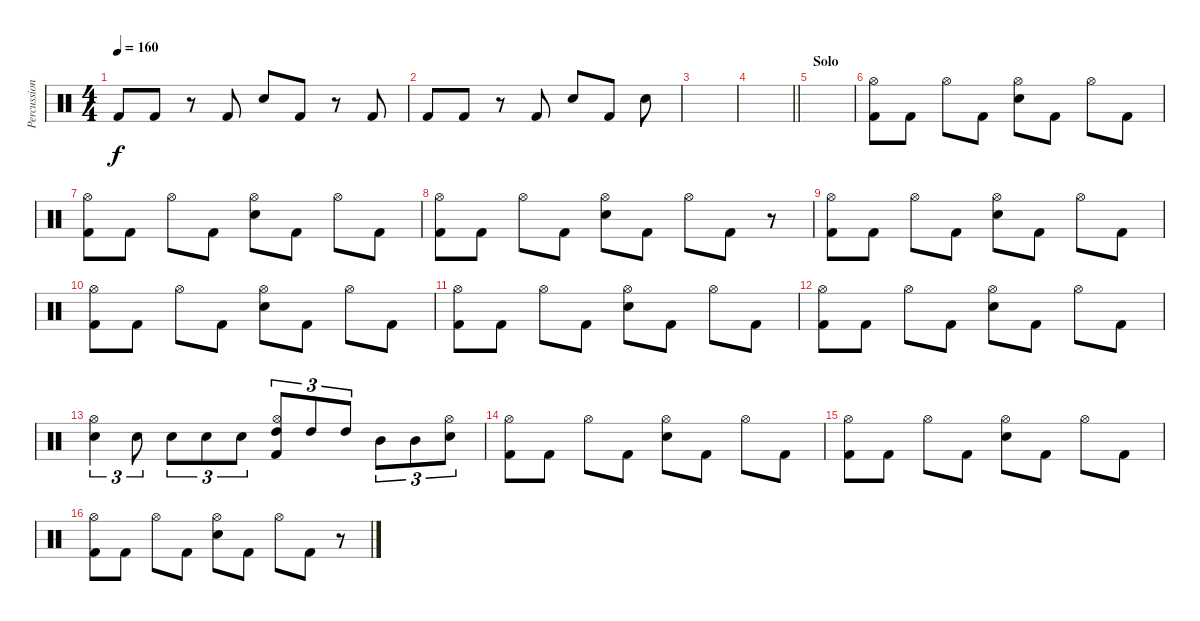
\track ("Percussion" "Percussion") {instrument percussion}
\staff {score}
\articulation defaults
\ts (4 4)
\tempo 160
\clef neutral
\ks c "Kick (hit) 2".8{dy f} "Kick (hit) 2".8
r.8 "Kick (hit) 2".8 "Snare (hit) 2".8 "Kick (hit) 2".8 r.8 "Kick (hit) 2".8 |
"Kick (hit) 2".8 "Kick (hit) 2".8 r.8 "Kick (hit) 2".8 "Snare (hit) 2".8 "Kick (hit) 2".8 "Snare (hit) 2".8 |
|
\barLineRight lightlight
|
\section ("" "Solo")
|
("Hi-Hat (open)" "Kick (hit) 2").8 "Kick (hit) 2".8 "Hi-Hat (open)".8 "Kick (hit) 2".8 ("Hi-Hat (open)" "Snare (hit) 2").8 "Kick (hit) 2".8 "Hi-Hat (open)".8 "Kick (hit) 2".8 |
("Hi-Hat (open)" "Kick (hit) 2").8 "Kick (hit) 2".8 "Hi-Hat (open)".8 "Kick (hit) 2".8 ("Hi-Hat (open)" "Snare (hit) 2").8 "Kick (hit) 2".8 "Hi-Hat (open)".8 "Kick (hit) 2".8 |
("Hi-Hat (open)" "Kick (hit) 2").8 "Kick (hit) 2".8 "Hi-Hat (open)".8 "Kick (hit) 2".8 ("Hi-Hat (open)" "Snare (hit) 2").8 "Kick (hit) 2".8 "Hi-Hat (open)".8 "Kick (hit) 2".8 r.8 |
("Hi-Hat (open)" "Kick (hit) 2").8 "Kick (hit) 2".8 "Hi-Hat (open)".8 "Kick (hit) 2".8 ("Hi-Hat (open)" "Snare (hit) 2").8 "Kick (hit) 2".8 "Hi-Hat (open)".8 "Kick (hit) 2".8 |
("Hi-Hat (open)" "Kick (hit) 2").8 "Kick (hit) 2".8 "Hi-Hat (open)".8 "Kick (hit) 2".8 ("Hi-Hat (open)" "Snare (hit) 2").8 "Kick (hit) 2".8 "Hi-Hat (open)".8 "Kick (hit) 2".8 |
("Hi-Hat (open)" "Kick (hit) 2").8 "Kick (hit) 2".8 "Hi-Hat (open)".8 "Kick (hit) 2".8 ("Hi-Hat (open)" "Snare (hit) 2").8 "Kick (hit) 2".8 "Hi-Hat (open)".8 "Kick (hit) 2".8 |
("Hi-Hat (open)" "Kick (hit) 2").8 "Kick (hit) 2".8 "Hi-Hat (open)".8 "Kick (hit) 2".8 ("Hi-Hat (open)" "Snare (hit) 2").8 "Kick (hit) 2".8 "Hi-Hat (open)".8 "Kick (hit) 2".8 |
("Hi-Hat (open)" "Snare (hit) 2").4{tu (3 2)} "Snare (hit) 2".8{tu (3 2)} "Snare (hit) 2".8{tu (3 2)} "Snare (hit) 2".8{tu (3 2)} "Snare (hit) 2".8{tu (3 2)} ("Hi-Hat (open)" "High Tom (hit)" "Kick (hit) 2").8{tu (3 2)} "High Tom (hit)".8{tu (3 2)} "High Tom (hit)".8{tu (3 2)} "Mid Tom (hit)".8{tu (3 2)} "Mid Tom (hit)".8{tu (3 2)} ("Hi-Hat (open)" "Snare (hit) 2").8{tu (3 2)} |
("Hi-Hat (open)" "Kick (hit) 2").8 "Kick (hit) 2".8 "Hi-Hat (open)".8 "Kick (hit) 2".8 ("Hi-Hat (open)" "Snare (hit) 2").8 "Kick (hit) 2".8 "Hi-Hat (open)".8 "Kick (hit) 2".8 |
("Hi-Hat (open)" "Kick (hit) 2").8 "Kick (hit) 2".8 "Hi-Hat (open)".8 "Kick (hit) 2".8 ("Hi-Hat (open)" "Snare (hit) 2").8 "Kick (hit) 2".8 "Hi-Hat (open)".8 "Kick (hit) 2".8 |
("Hi-Hat (open)" "Kick (hit) 2").8 "Kick (hit) 2".8 "Hi-Hat (open)".8 "Kick (hit) 2".8 ("Hi-Hat (open)" "Snare (hit) 2").8 "Kick (hit) 2".8 "Hi-Hat (open)".8 "Kick (hit) 2".8 r.8
